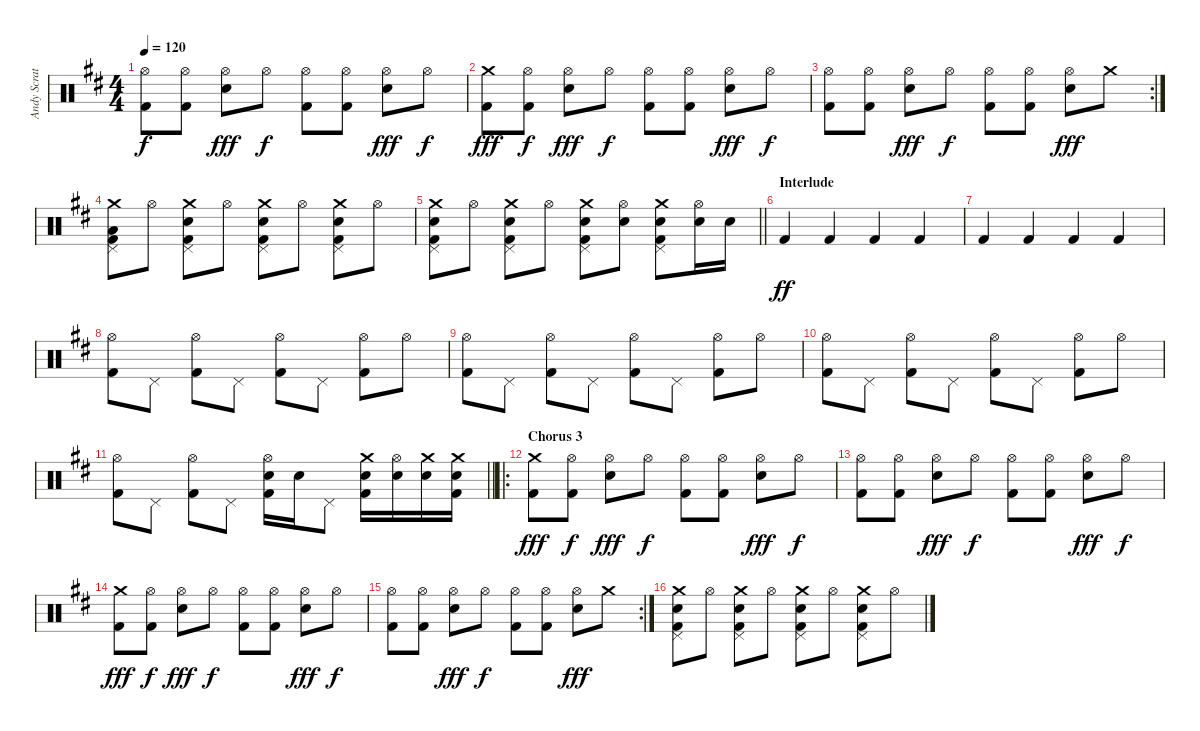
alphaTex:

\track ("Andy Scratchen (Drums)" "Andy Scrat") {instrument percussion}
\staff {score}
\articulation defaults
\ts (4 4)
\tempo 120
\clef neutral
\ks bminor
("Hi-Hat (open)" "Kick (hit) 2").8{dy f} ("Hi-Hat (open)" "Kick (hit) 2").8 ("Hi-Hat (open)" "Snare (hit) 2").8{dy fff} "Hi-Hat (open)".8{dy f} ("Hi-Hat (open)" "Kick (hit) 2").8 ("Hi-Hat (open)" "Kick (hit) 2").8 ("Hi-Hat (open)" "Snare (hit) 2").8{dy fff} "Hi-Hat (open)".8{dy f} |
("Crash medium (hit)" "Kick (hit) 2").8{dy fff} ("Hi-Hat (open)" "Kick (hit) 2").8{dy f} ("Hi-Hat (open)" "Snare (hit) 2").8{dy fff} "Hi-Hat (open)".8{dy f} ("Hi-Hat (open)" "Kick (hit) 2").8 ("Hi-Hat (open)" "Kick (hit) 2").8 ("Hi-Hat (open)" "Snare (hit) 2").8{dy fff} "Hi-Hat (open)".8{dy f} |
\rc 2
("Hi-Hat (open)" "Kick (hit) 2").8 ("Hi-Hat (open)" "Kick (hit) 2").8 ("Hi-Hat (open)" "Snare (hit) 2").8{dy fff} "Hi-Hat (open)".8{dy f} ("Hi-Hat (open)" "Kick (hit) 2").8 ("Hi-Hat (open)" "Kick (hit) 2").8 ("Hi-Hat (open)" "Snare (hit) 2").8{dy fff} "Crash medium (hit)".8 |
("Crash medium (hit)" "Pedal Hi-Hat (hit)" "Low Floor Tom (hit)" "Kick (hit) 2").8 "Hi-Hat (open)".8 ("Crash medium (hit)" "Pedal Hi-Hat (hit)" "Snare (hit) 2" "Kick (hit) 2").8 "Hi-Hat (open)".8 ("Crash medium (hit)" "Pedal Hi-Hat (hit)" "Snare (hit) 2" "Kick (hit) 2").8 "Hi-Hat (open)".8 ("Crash medium (hit)" "Pedal Hi-Hat (hit)" "Snare (hit) 2" "Kick (hit) 2").8 "Hi-Hat (open)".8 |
\barLineRight lightlight
("Crash medium (hit)" "Pedal Hi-Hat (hit)" "Snare (hit) 2" "Kick (hit) 2").8 "Hi-Hat (open)".8 ("Crash medium (hit)" "Pedal Hi-Hat (hit)" "Snare (hit) 2" "Kick (hit) 2").8 "Hi-Hat (open)".8 ("Crash medium (hit)" "Pedal Hi-Hat (hit)" "Snare (hit) 2" "Kick (hit) 2").8 ("Hi-Hat (open)" "Snare (hit) 2").8 ("Crash medium (hit)" "Pedal Hi-Hat (hit)" "Snare (hit) 2" "Kick (hit) 2").8 ("Hi-Hat (open)" "Snare (hit) 2").16 "Snare (hit) 2".16 |
\section ("" "Interlude")
"Kick (hit) 2".4{dy ff} "Kick (hit) 2".4 "Kick (hit) 2".4 "Kick (hit) 2".4 |
"Kick (hit) 2".4 "Kick (hit) 2".4 "Kick (hit) 2".4 "Kick (hit) 2".4 |
("Hi-Hat (open)" "Kick (hit) 2").8 "Pedal Hi-Hat (hit)".8 ("Hi-Hat (open)" "Kick (hit) 2").8 "Pedal Hi-Hat (hit)".8 ("Hi-Hat (open)" "Kick (hit) 2").8 "Pedal Hi-Hat (hit)".8 ("Hi-Hat (open)" "Kick (hit) 2").8 "Hi-Hat (open)".8 |
("Hi-Hat (open)" "Kick (hit) 2").8 "Pedal Hi-Hat (hit)".8 ("Hi-Hat (open)" "Kick (hit) 2").8 "Pedal Hi-Hat (hit)".8 ("Hi-Hat (open)" "Kick (hit) 2").8 "Pedal Hi-Hat (hit)".8 ("Hi-Hat (open)" "Kick (hit) 2").8 "Hi-Hat (open)".8 |
("Hi-Hat (open)" "Kick (hit) 2").8 "Pedal Hi-Hat (hit)".8 ("Hi-Hat (open)" "Kick (hit) 2").8 "Pedal Hi-Hat (hit)".8 ("Hi-Hat (open)" "Kick (hit) 2").8 "Pedal Hi-Hat (hit)".8 ("Hi-Hat (open)" "Kick (hit) 2").8 "Hi-Hat (open)".8 |
\barLineRight lightlight
("Hi-Hat (open)" "Kick (hit) 2").8 "Pedal Hi-Hat (hit)".8 ("Hi-Hat (open)" "Kick (hit) 2").8 "Pedal Hi-Hat (hit)".8 ("Hi-Hat (open)" "Snare (hit) 2" "Kick (hit) 2").16 "Snare (hit) 2".16 "Pedal Hi-Hat (hit)".8 ("Crash medium (hit)" "Snare (hit) 2" "Kick (hit) 2").16 ("Hi-Hat (open)" "Snare (hit) 2").16 ("Crash medium (hit)" "Snare (hit) 2").16 ("Crash medium (hit)" "Snare (hit) 2" "Kick (hit) 2").16 |
\ro
\section ("" "Chorus 3")
("Crash medium (hit)" "Kick (hit) 2").8{dy fff volume 13} ("Hi-Hat (open)" "Kick (hit) 2").8{dy f} ("Hi-Hat (open)" "Snare (hit) 2").8{dy fff} "Hi-Hat (open)".8{dy f} ("Hi-Hat (open)" "Kick (hit) 2").8 ("Hi-Hat (open)" "Kick (hit) 2").8 ("Hi-Hat (open)" "Snare (hit) 2").8{dy fff} "Hi-Hat (open)".8{dy f} |
("Hi-Hat (open)" "Kick (hit) 2").8 ("Hi-Hat (open)" "Kick (hit) 2").8 ("Hi-Hat (open)" "Snare (hit) 2").8{dy fff} "Hi-Hat (open)".8{dy f} ("Hi-Hat (open)" "Kick (hit) 2").8 ("Hi-Hat (open)" "Kick (hit) 2").8 ("Hi-Hat (open)" "Snare (hit) 2").8{dy fff} "Hi-Hat (open)".8{dy f} |
("Crash medium (hit)" "Kick (hit) 2").8{dy fff} ("Hi-Hat (open)" "Kick (hit) 2").8{dy f} ("Hi-Hat (open)" "Snare (hit) 2").8{dy fff} "Hi-Hat (open)".8{dy f} ("Hi-Hat (open)" "Kick (hit) 2").8 ("Hi-Hat (open)" "Kick (hit) 2").8 ("Hi-Hat (open)" "Snare (hit) 2").8{dy fff} "Hi-Hat (open)".8{dy f} |
\rc 2
("Hi-Hat (open)" "Kick (hit) 2").8 ("Hi-Hat (open)" "Kick (hit) 2").8 ("Hi-Hat (open)" "Snare (hit) 2").8{dy fff} "Hi-Hat (open)".8{dy f} ("Hi-Hat (open)" "Kick (hit) 2").8 ("Hi-Hat (open)" "Kick (hit) 2").8 ("Hi-Hat (open)" "Snare (hit) 2").8{dy fff} "Crash medium (hit)".8 |
("Crash medium (hit)" "Pedal Hi-Hat (hit)" "Snare (hit) 2" "Kick (hit) 2").8 "Hi-Hat (open)".8 ("Crash medium (hit)" "Pedal Hi-Hat (hit)" "Snare (hit) 2" "Kick (hit) 2").8 "Hi-Hat (open)".8 ("Crash medium (hit)" "Pedal Hi-Hat (hit)" "Snare (hit) 2" "Kick (hit) 2").8 "Hi-Hat (open)".8 ("Crash medium (hit)" "Pedal Hi-Hat (hit)" "Snare (hit) 2" "Kick (hit) 2").8 "Hi-Hat (open)".8
